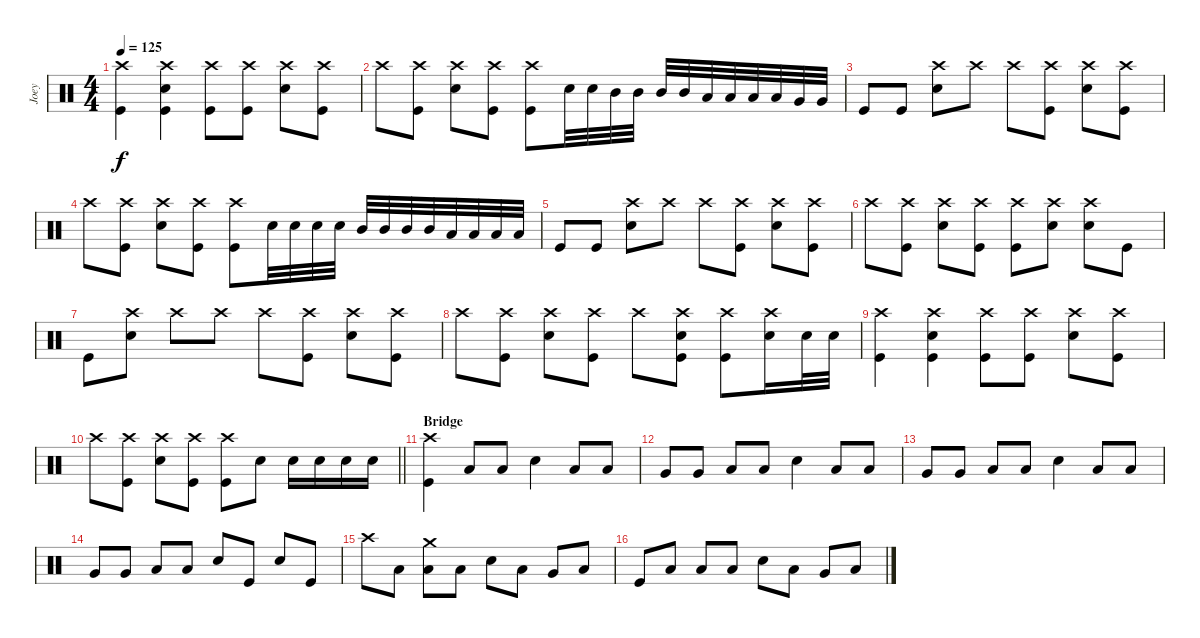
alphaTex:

\track ("Joey" "Joey") {instrument percussion}
\staff {score}
\articulation defaults
\ts (4 4)
\tempo 125
\clef neutral
\ks c
("Crash high (hit)" "Kick (hit)").4{dy f} ("Crash high (hit)" "Snare (hit) 2" "Kick (hit)").4 ("Crash high (hit)" "Kick (hit)").8 ("Crash high (hit)" "Kick (hit)").8 ("Crash high (hit)" "Snare (hit) 2").8 ("Crash high (hit)" "Kick (hit)").8 |
"Crash high (hit)".8 ("Crash high (hit)" "Kick (hit)").8 ("Crash high (hit)" "Snare (hit) 2").8 ("Crash high (hit)" "Kick (hit)").8 ("Crash high (hit)" "Kick (hit)").8 "Snare (hit) 2".32 "Snare (hit) 2".32 "Mid Tom (hit)".32 "Mid Tom (hit)".32 "Mid Tom (hit)".32 "Mid Tom (hit)".32 "Low Tom (hit)".32 "Low Tom (hit)".32 "Low Tom (hit)".32 "Low Tom (hit)".32 "Very Low Tom (hit)".32 "Very Low Tom (hit)".32 |
"Kick (hit)".8 "Kick (hit)".8 ("Crash high (hit)" "Snare (hit) 2").8 "Crash high (hit)".8 "Crash high (hit)".8 ("Crash high (hit)" "Kick (hit)").8 ("Crash high (hit)" "Snare (hit) 2").8 ("Crash high (hit)" "Kick (hit)").8 |
"Crash high (hit)".8 ("Crash high (hit)" "Kick (hit)").8 ("Crash high (hit)" "Snare (hit) 2").8 ("Crash high (hit)" "Kick (hit)").8 ("Crash high (hit)" "Kick (hit)").8 "Snare (hit) 2".32 "Snare (hit) 2".32 "Snare (hit) 2".32 "Snare (hit) 2".32 "Mid Tom (hit)".32 "Mid Tom (hit)".32 "Mid Tom (hit)".32 "Mid Tom (hit)".32 "Low Tom (hit)".32 "Low Tom (hit)".32 "Low Tom (hit)".32 "Low Tom (hit)".32 |
"Kick (hit)".8 "Kick (hit)".8 ("Crash high (hit)" "Snare (hit) 2").8 "Crash high (hit)".8 "Crash high (hit)".8 ("Crash high (hit)" "Kick (hit)").8 ("Crash high (hit)" "Snare (hit) 2").8 ("Crash high (hit)" "Kick (hit)").8 |
"Crash high (hit)".8 ("Crash high (hit)" "Kick (hit)").8 ("Crash high (hit)" "Snare (hit) 2").8 ("Crash high (hit)" "Kick (hit)").8 ("Crash high (hit)" "Kick (hit)").8 ("Crash high (hit)" "Snare (hit) 2").8 ("Crash high (hit)" "Snare (hit) 2").8 "Kick (hit)".8 |
"Kick (hit)".8 ("Crash high (hit)" "Snare (hit) 2").8 "Crash high (hit)".8 "Crash high (hit)".8 "Crash high (hit)".8 ("Crash high (hit)" "Kick (hit)").8 ("Crash high (hit)" "Snare (hit) 2").8 ("Crash high (hit)" "Kick (hit)").8 |
"Crash high (hit)".8 ("Crash high (hit)" "Kick (hit)").8 ("Crash high (hit)" "Snare (hit) 2").8 ("Crash high (hit)" "Kick (hit)").8 "Crash high (hit)".8 ("Crash high (hit)" "Snare (hit) 2" "Kick (hit)").8 ("Crash high (hit)" "Kick (hit)").8 ("Crash high (hit)" "Snare (hit) 2").16 "Snare (hit) 2".32 "Snare (hit) 2".32 |
("Crash high (hit)" "Kick (hit)").4 ("Crash high (hit)" "Snare (hit) 2" "Kick (hit)").4 ("Crash high (hit)" "Kick (hit)").8 ("Crash high (hit)" "Kick (hit)").8 ("Crash high (hit)" "Snare (hit) 2").8 ("Crash high (hit)" "Kick (hit)").8 |
\barLineRight lightlight "Crash high (hit)".8
("Crash high (hit)" "Kick (hit)").8 ("Crash high (hit)" "Snare (hit) 2").8 ("Crash high (hit)" "Kick (hit)").8 ("Crash high (hit)" "Kick (hit)").8 "Snare (hit) 2".8 "Snare (hit) 2".16 "Snare (hit) 2".16 "Snare (hit) 2".16 "Snare (hit) 2".16 |
\section ("" "Bridge ")
("Crash high (hit)" "Kick (hit)").4 "Low Floor Tom (hit)".8 "Low Floor Tom (hit)".8 "Snare (hit) 2".4 "Low Floor Tom (hit)".8 "Low Floor Tom (hit)".8 |
"Very Low Tom (hit)".8 "Very Low Tom (hit)".8 "Low Tom (hit)".8 "Low Tom (hit)".8 "Snare (hit) 2".4 "Low Floor Tom (hit)".8 "Low Floor Tom (hit)".8 |
"Very Low Tom (hit)".8 "Very Low Tom (hit)".8 "Low Tom (hit)".8 "Low Tom (hit)".8 "Snare (hit) 2".4 "Low Floor Tom (hit)".8 "Low Floor Tom (hit)".8 |
"Very Low Tom (hit)".8 "Very Low Tom (hit)".8 "Low Tom (hit)".8 "Low Tom (hit)".8 "Snare (hit) 2".8 "Kick (hit)".8 "Snare (hit) 2".8 "Kick (hit)".8 |
"Crash high (hit)".8 "Low Floor Tom (hit)".8 ("Crash medium (hit)" "Low Floor Tom (hit)").8 "Low Floor Tom (hit)".8 "Snare (hit) 2".8 "Low Floor Tom (hit)".8 "Very Low Tom (hit)".8 "Low Tom (hit)".8 |
"Kick (hit)".8 "Low Floor Tom (hit)".8 "Low Floor Tom (hit)".8 "Low Floor Tom (hit)".8 "Snare (hit) 2".8 "Low Floor Tom (hit)".8 "Very Low Tom (hit)".8 "Low Tom (hit)".8
